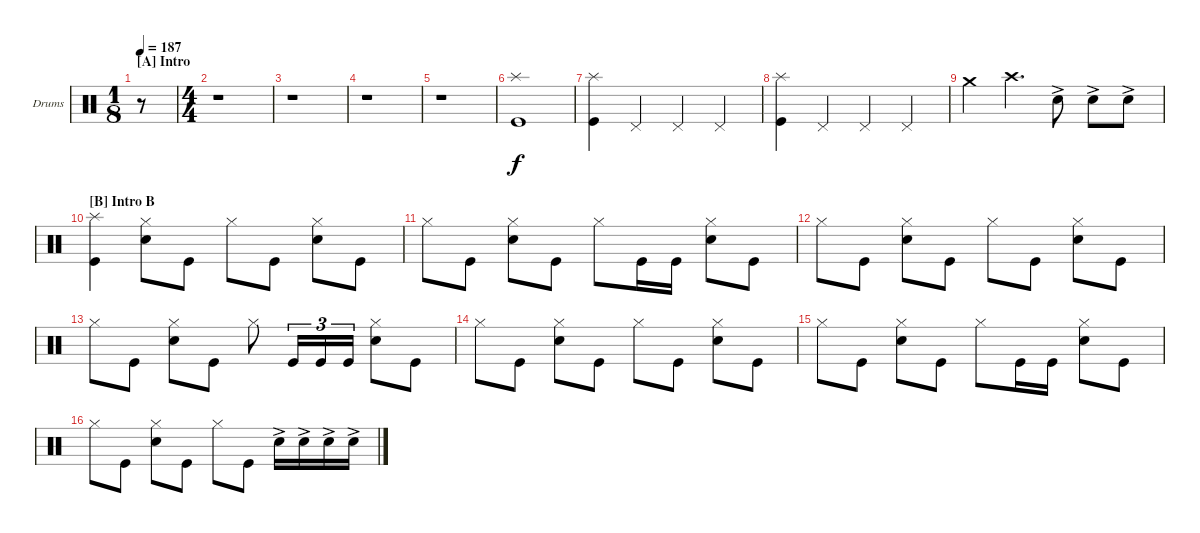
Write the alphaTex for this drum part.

\defaultSystemsLayout 4
\bracketExtendMode groupsimilarinstruments
\firstSystemTrackNameOrientation horizontal
\otherSystemsTrackNameOrientation horizontal
\track ("Drumkit" "Drums") {instrument percussion}
\staff {score}
\articulation defaults
\ts (1 8)
\section ("A" "Intro")
\tempo 187
\clef neutral
\scale
0.390805
\ks c
r.8{dy f} |
\ts (4 4)
\scale
0.390805 r.1 |
\scale
0.218391 r.1 |
\scale
0.333333 r.1 |
\scale
0.333333 r.1 |
\scale
0.333333 ("Kick (hit)" "Splash (hit)").1 |
\scale
0.333333 ("Kick (hit)" "Splash (hit)").4 "Pedal Hi-Hat (hit)".4 "Pedal Hi-Hat (hit)".4 "Pedal Hi-Hat (hit)".4 |
\scale
0.333333 ("Kick (hit)" "Splash (hit)").4 "Pedal Hi-Hat (hit)".4 "Pedal Hi-Hat (hit)".4 "Pedal Hi-Hat (hit)".4 |
\scale
0.333333 "Crash medium (hit)".4 "Crash high (hit)".4{d} "Snare (hit) 2"{ac}.8 "Snare (hit) 2"{ac}.8 "Snare (hit) 2"{ac}.8 |
\section ("B" "Intro B")
\scale
0.333333 ("Kick (hit)" "Splash (hit)").4 ("Snare (hit) 2" "Hi-Hat (closed)").8 "Kick (hit)".8 "Hi-Hat (closed)".8 "Kick (hit)".8 ("Snare (hit) 2" "Hi-Hat (closed)").8 "Kick (hit)".8 |
\scale
0.333333 "Hi-Hat (closed)".8 "Kick (hit)".8 ("Snare (hit) 2" "Hi-Hat (closed)").8 "Kick (hit)".8 "Hi-Hat (closed)".8 "Kick (hit)".16 "Kick (hit)".16 ("Snare (hit) 2" "Hi-Hat (closed)").8 "Kick (hit)".8 |
\scale
0.333333 "Hi-Hat (closed)".8 "Kick (hit)".8 ("Snare (hit) 2" "Hi-Hat (closed)").8 "Kick (hit)".8 "Hi-Hat (closed)".8 "Kick (hit)".8 ("Snare (hit) 2" "Hi-Hat (closed)").8 "Kick (hit)".8 |
\scale
0.333333 "Hi-Hat (closed)".8 "Kick (hit)".8 ("Snare (hit) 2" "Hi-Hat (closed)").8 "Kick (hit)".8 "Hi-Hat (closed)".8 "Kick (hit)".16{tu (3 2)} "Kick (hit)".16{tu (3 2)} "Kick (hit)".16{tu (3 2)} ("Snare (hit) 2" "Hi-Hat (closed)").8 "Kick (hit)".8 |
\scale
0.333333 "Hi-Hat (closed)".8 "Kick (hit)".8 ("Snare (hit) 2" "Hi-Hat (closed)").8 "Kick (hit)".8 "Hi-Hat (closed)".8 "Kick (hit)".8 ("Snare (hit) 2" "Hi-Hat (closed)").8 "Kick (hit)".8 |
\scale
0.333333 "Hi-Hat (closed)".8 "Kick (hit)".8 ("Snare (hit) 2" "Hi-Hat (closed)").8 "Kick (hit)".8 "Hi-Hat (closed)".8 "Kick (hit)".16 "Kick (hit)".16 ("Snare (hit) 2" "Hi-Hat (closed)").8 "Kick (hit)".8 |
\scale
0.333333 "Hi-Hat (closed)".8 "Kick (hit)".8 ("Snare (hit) 2" "Hi-Hat (closed)").8 "Kick (hit)".8 "Hi-Hat (closed)".8 "Kick (hit)".8 "Snare (hit) 2"{ac}.16 "Snare (hit) 2"{ac}.16 "Snare (hit) 2"{ac}.16 "Snare (hit) 2"{ac}.16
